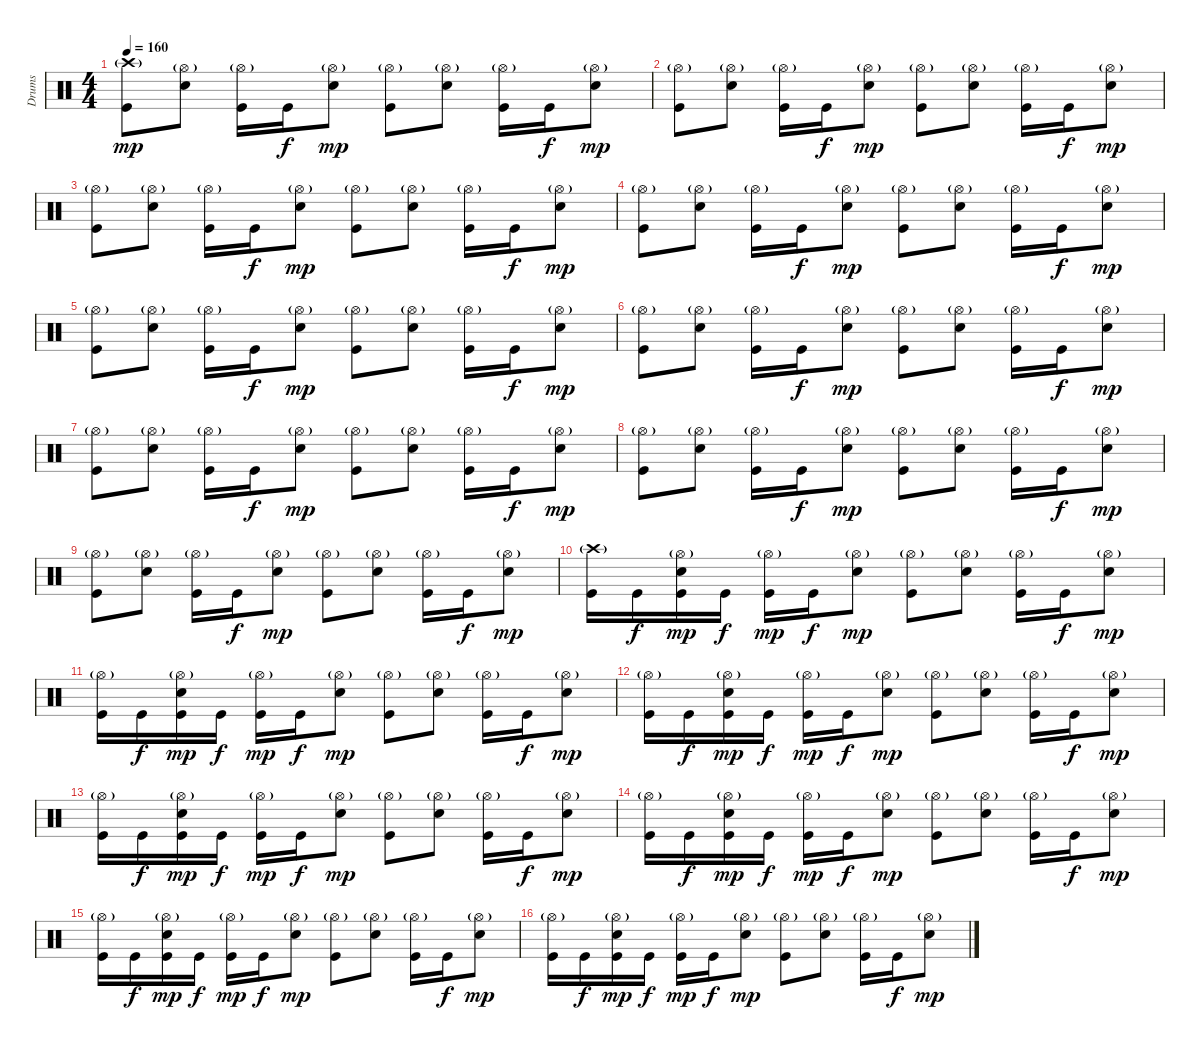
\track ("Drums" "Drums") {instrument percussion}
\staff {score}
\articulation defaults
\ts (4 4)
\tempo 160
\clef neutral
\ks c
("Crash high (hit)"{g} "Kick (hit)").8{dy mp} ("Hi-Hat (open)"{g} "Snare (hit) 2").8 ("Hi-Hat (open)"{g} "Kick (hit)").16 "Kick (hit)".16{dy f} ("Hi-Hat (open)"{g} "Snare (hit) 2").8{dy mp} ("Hi-Hat (open)"{g} "Kick (hit)").8 ("Hi-Hat (open)"{g} "Snare (hit) 2").8 ("Hi-Hat (open)"{g} "Kick (hit)").16 "Kick (hit)".16{dy f} ("Hi-Hat (open)"{g} "Snare (hit) 2").8{dy mp} |
("Hi-Hat (open)"{g} "Kick (hit)").8 ("Hi-Hat (open)"{g} "Snare (hit) 2").8 ("Hi-Hat (open)"{g} "Kick (hit)").16 "Kick (hit)".16{dy f} ("Hi-Hat (open)"{g} "Snare (hit) 2").8{dy mp} ("Hi-Hat (open)"{g} "Kick (hit)").8 ("Hi-Hat (open)"{g} "Snare (hit) 2").8 ("Hi-Hat (open)"{g} "Kick (hit)").16 "Kick (hit)".16{dy f} ("Hi-Hat (open)"{g} "Snare (hit) 2").8{dy mp} |
("Hi-Hat (open)"{g} "Kick (hit)").8 ("Hi-Hat (open)"{g} "Snare (hit) 2").8 ("Hi-Hat (open)"{g} "Kick (hit)").16 "Kick (hit)".16{dy f} ("Hi-Hat (open)"{g} "Snare (hit) 2").8{dy mp} ("Hi-Hat (open)"{g} "Kick (hit)").8 ("Hi-Hat (open)"{g} "Snare (hit) 2").8 ("Hi-Hat (open)"{g} "Kick (hit)").16 "Kick (hit)".16{dy f} ("Hi-Hat (open)"{g} "Snare (hit) 2").8{dy mp} |
("Hi-Hat (open)"{g} "Kick (hit)").8 ("Hi-Hat (open)"{g} "Snare (hit) 2").8 ("Hi-Hat (open)"{g} "Kick (hit)").16 "Kick (hit)".16{dy f} ("Hi-Hat (open)"{g} "Snare (hit) 2").8{dy mp} ("Hi-Hat (open)"{g} "Kick (hit)").8 ("Hi-Hat (open)"{g} "Snare (hit) 2").8 ("Hi-Hat (open)"{g} "Kick (hit)").16 "Kick (hit)".16{dy f} ("Hi-Hat (open)"{g} "Snare (hit) 2").8{dy mp} |
("Hi-Hat (open)"{g} "Kick (hit)").8 ("Hi-Hat (open)"{g} "Snare (hit) 2").8 ("Hi-Hat (open)"{g} "Kick (hit)").16 "Kick (hit)".16{dy f} ("Hi-Hat (open)"{g} "Snare (hit) 2").8{dy mp} ("Hi-Hat (open)"{g} "Kick (hit)").8 ("Hi-Hat (open)"{g} "Snare (hit) 2").8 ("Hi-Hat (open)"{g} "Kick (hit)").16 "Kick (hit)".16{dy f} ("Hi-Hat (open)"{g} "Snare (hit) 2").8{dy mp} |
("Hi-Hat (open)"{g} "Kick (hit)").8 ("Hi-Hat (open)"{g} "Snare (hit) 2").8 ("Hi-Hat (open)"{g} "Kick (hit)").16 "Kick (hit)".16{dy f} ("Hi-Hat (open)"{g} "Snare (hit) 2").8{dy mp} ("Hi-Hat (open)"{g} "Kick (hit)").8 ("Hi-Hat (open)"{g} "Snare (hit) 2").8 ("Hi-Hat (open)"{g} "Kick (hit)").16 "Kick (hit)".16{dy f} ("Hi-Hat (open)"{g} "Snare (hit) 2").8{dy mp} |
("Hi-Hat (open)"{g} "Kick (hit)").8 ("Hi-Hat (open)"{g} "Snare (hit) 2").8 ("Hi-Hat (open)"{g} "Kick (hit)").16 "Kick (hit)".16{dy f} ("Hi-Hat (open)"{g} "Snare (hit) 2").8{dy mp} ("Hi-Hat (open)"{g} "Kick (hit)").8 ("Hi-Hat (open)"{g} "Snare (hit) 2").8 ("Hi-Hat (open)"{g} "Kick (hit)").16 "Kick (hit)".16{dy f} ("Hi-Hat (open)"{g} "Snare (hit) 2").8{dy mp} |
("Hi-Hat (open)"{g} "Kick (hit)").8 ("Hi-Hat (open)"{g} "Snare (hit) 2").8 ("Hi-Hat (open)"{g} "Kick (hit)").16 "Kick (hit)".16{dy f} ("Hi-Hat (open)"{g} "Snare (hit) 2").8{dy mp} ("Hi-Hat (open)"{g} "Kick (hit)").8 ("Hi-Hat (open)"{g} "Snare (hit) 2").8 ("Hi-Hat (open)"{g} "Kick (hit)").16 "Kick (hit)".16{dy f} ("Hi-Hat (open)"{g} "Snare (hit) 2").8{dy mp} |
("Hi-Hat (open)"{g} "Kick (hit)").8 ("Hi-Hat (open)"{g} "Snare (hit) 2").8 ("Hi-Hat (open)"{g} "Kick (hit)").16 "Kick (hit)".16{dy f} ("Hi-Hat (open)"{g} "Snare (hit) 2").8{dy mp} ("Hi-Hat (open)"{g} "Kick (hit)").8 ("Hi-Hat (open)"{g} "Snare (hit) 2").8 ("Hi-Hat (open)"{g} "Kick (hit)").16 "Kick (hit)".16{dy f} ("Hi-Hat (open)"{g} "Snare (hit) 2").8{dy mp} |
("Crash high (hit)"{g} "Kick (hit)").16 "Kick (hit)".16{dy f} ("Hi-Hat (open)"{g} "Snare (hit) 2" "Kick (hit)").16{dy mp} "Kick (hit)".16{dy f} ("Hi-Hat (open)"{g} "Kick (hit)").16{dy mp} "Kick (hit)".16{dy f} ("Hi-Hat (open)"{g} "Snare (hit) 2").8{dy mp} ("Hi-Hat (open)"{g} "Kick (hit)").8 ("Hi-Hat (open)"{g} "Snare (hit) 2").8 ("Hi-Hat (open)"{g} "Kick (hit)").16 "Kick (hit)".16{dy f} ("Hi-Hat (open)"{g} "Snare (hit) 2").8{dy mp} |
("Hi-Hat (open)"{g} "Kick (hit)").16 "Kick (hit)".16{dy f} ("Hi-Hat (open)"{g} "Snare (hit) 2" "Kick (hit)").16{dy mp} "Kick (hit)".16{dy f} ("Hi-Hat (open)"{g} "Kick (hit)").16{dy mp} "Kick (hit)".16{dy f} ("Hi-Hat (open)"{g} "Snare (hit) 2").8{dy mp} ("Hi-Hat (open)"{g} "Kick (hit)").8 ("Hi-Hat (open)"{g} "Snare (hit) 2").8 ("Hi-Hat (open)"{g} "Kick (hit)").16 "Kick (hit)".16{dy f} ("Hi-Hat (open)"{g} "Snare (hit) 2").8{dy mp} |
("Hi-Hat (open)"{g} "Kick (hit)").16 "Kick (hit)".16{dy f} ("Hi-Hat (open)"{g} "Snare (hit) 2" "Kick (hit)").16{dy mp} "Kick (hit)".16{dy f} ("Hi-Hat (open)"{g} "Kick (hit)").16{dy mp} "Kick (hit)".16{dy f} ("Hi-Hat (open)"{g} "Snare (hit) 2").8{dy mp} ("Hi-Hat (open)"{g} "Kick (hit)").8 ("Hi-Hat (open)"{g} "Snare (hit) 2").8 ("Hi-Hat (open)"{g} "Kick (hit)").16 "Kick (hit)".16{dy f} ("Hi-Hat (open)"{g} "Snare (hit) 2").8{dy mp} |
("Hi-Hat (open)"{g} "Kick (hit)").16 "Kick (hit)".16{dy f} ("Hi-Hat (open)"{g} "Snare (hit) 2" "Kick (hit)").16{dy mp} "Kick (hit)".16{dy f} ("Hi-Hat (open)"{g} "Kick (hit)").16{dy mp} "Kick (hit)".16{dy f} ("Hi-Hat (open)"{g} "Snare (hit) 2").8{dy mp} ("Hi-Hat (open)"{g} "Kick (hit)").8 ("Hi-Hat (open)"{g} "Snare (hit) 2").8 ("Hi-Hat (open)"{g} "Kick (hit)").16 "Kick (hit)".16{dy f} ("Hi-Hat (open)"{g} "Snare (hit) 2").8{dy mp} |
("Hi-Hat (open)"{g} "Kick (hit)").16 "Kick (hit)".16{dy f} ("Hi-Hat (open)"{g} "Snare (hit) 2" "Kick (hit)").16{dy mp} "Kick (hit)".16{dy f} ("Hi-Hat (open)"{g} "Kick (hit)").16{dy mp} "Kick (hit)".16{dy f} ("Hi-Hat (open)"{g} "Snare (hit) 2").8{dy mp} ("Hi-Hat (open)"{g} "Kick (hit)").8 ("Hi-Hat (open)"{g} "Snare (hit) 2").8 ("Hi-Hat (open)"{g} "Kick (hit)").16 "Kick (hit)".16{dy f} ("Hi-Hat (open)"{g} "Snare (hit) 2").8{dy mp} |
("Hi-Hat (open)"{g} "Kick (hit)").16 "Kick (hit)".16{dy f} ("Hi-Hat (open)"{g} "Snare (hit) 2" "Kick (hit)").16{dy mp} "Kick (hit)".16{dy f} ("Hi-Hat (open)"{g} "Kick (hit)").16{dy mp} "Kick (hit)".16{dy f} ("Hi-Hat (open)"{g} "Snare (hit) 2").8{dy mp} ("Hi-Hat (open)"{g} "Kick (hit)").8 ("Hi-Hat (open)"{g} "Snare (hit) 2").8 ("Hi-Hat (open)"{g} "Kick (hit)").16 "Kick (hit)".16{dy f} ("Hi-Hat (open)"{g} "Snare (hit) 2").8{dy mp} |
("Hi-Hat (open)"{g} "Kick (hit)").16 "Kick (hit)".16{dy f} ("Hi-Hat (open)"{g} "Snare (hit) 2" "Kick (hit)").16{dy mp} "Kick (hit)".16{dy f} ("Hi-Hat (open)"{g} "Kick (hit)").16{dy mp} "Kick (hit)".16{dy f} ("Hi-Hat (open)"{g} "Snare (hit) 2").8{dy mp} ("Hi-Hat (open)"{g} "Kick (hit)").8 ("Hi-Hat (open)"{g} "Snare (hit) 2").8 ("Hi-Hat (open)"{g} "Kick (hit)").16 "Kick (hit)".16{dy f} ("Hi-Hat (open)"{g} "Snare (hit) 2").8{dy mp}
